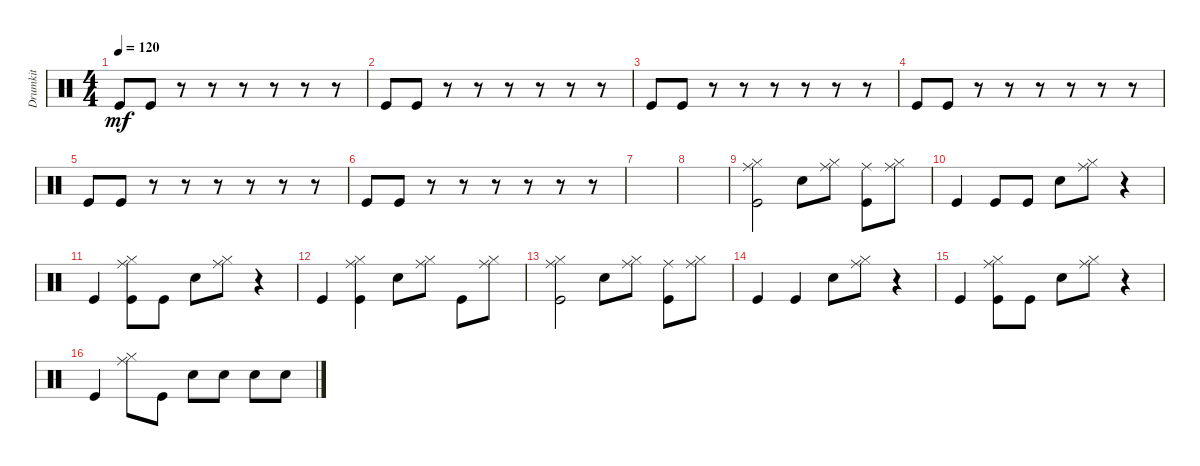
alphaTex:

\track ("Drumkit" "Drumkit") {instrument percussion}
\staff {score}
\articulation defaults
\ts (4 4)
\tempo 120
\clef neutral
\ks c "Kick (hit)".8{dy mf} "Kick (hit)".8
r.8 r.8 r.8 r.8 r.8 r.8 |
"Kick (hit)".8 "Kick (hit)".8 r.8 r.8 r.8 r.8 r.8 r.8 |
"Kick (hit)".8 "Kick (hit)".8 r.8 r.8 r.8 r.8 r.8 r.8 |
"Kick (hit)".8 "Kick (hit)".8 r.8 r.8 r.8 r.8 r.8 r.8 |
"Kick (hit)".8 "Kick (hit)".8 r.8 r.8 r.8 r.8 r.8 r.8 |
"Kick (hit)".8 "Kick (hit)".8 r.8 r.8 r.8 r.8 r.8 r.8 |
|
|
("Kick (hit)" "Ride (middle)" "Hi-Hat (closed)").2 "Snare (hit) 2".8 ("Hi-Hat (closed)" "Ride (middle)").8 ("Kick (hit)" "Ride (middle)").8 ("Hi-Hat (closed)" "Ride (middle)").8 |
"Kick (hit)".4 "Kick (hit)".8 "Kick (hit)".8 "Snare (hit) 2".8 ("Hi-Hat (closed)" "Ride (middle)").8 r.4 |
"Kick (hit)".4 ("Kick (hit)" "Ride (middle)" "Hi-Hat (closed)").8 "Kick (hit)".8 "Snare (hit) 2".8 ("Hi-Hat (closed)" "Ride (middle)").8 r.4 |
"Kick (hit)".4 ("Kick (hit)" "Ride (middle)" "Hi-Hat (closed)").4 "Snare (hit) 2".8 ("Ride (middle)" "Hi-Hat (closed)").8 "Kick (hit)".8 ("Ride (middle)" "Hi-Hat (closed)").8 |
("Kick (hit)" "Ride (middle)" "Hi-Hat (closed)").2 "Snare (hit) 2".8 ("Hi-Hat (closed)" "Ride (middle)").8 ("Kick (hit)" "Ride (middle)").8 ("Hi-Hat (closed)" "Ride (middle)").8 |
"Kick (hit)".4 "Kick (hit)".4 "Snare (hit) 2".8 ("Hi-Hat (closed)" "Ride (middle)").8 r.4 |
"Kick (hit)".4 ("Kick (hit)" "Ride (middle)" "Hi-Hat (closed)").8 "Kick (hit)".8 "Snare (hit) 2".8 ("Hi-Hat (closed)" "Ride (middle)").8 r.4 |
"Kick (hit)".4 ("Ride (middle)" "Hi-Hat (closed)").8 "Kick (hit)".8 "Snare (hit) 2".8 "Snare (hit) 2".8 "Snare (hit) 2".8 "Snare (hit) 2".8
